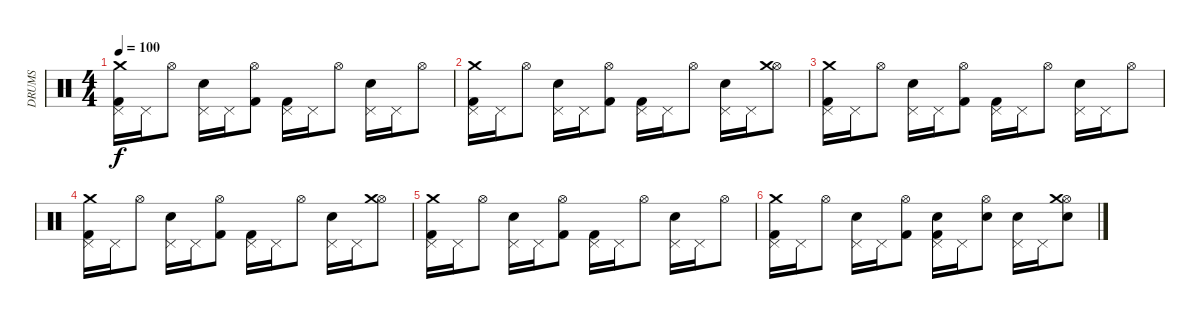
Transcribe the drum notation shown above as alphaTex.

\track ("DRUMS" "DRUMS") {instrument percussion}
\staff {score}
\articulation defaults
\ts (4 4)
\tempo 100
\clef neutral
\ks c
("Kick (hit) 2" "Pedal Hi-Hat (hit)" "Crash medium (hit)").16{dy f} "Pedal Hi-Hat (hit)".16 "Hi-Hat (open)".8 ("Electric Snare (hit)" "Pedal Hi-Hat (hit)").16 "Pedal Hi-Hat (hit)".16 ("Kick (hit) 2" "Hi-Hat (open)").8 ("Kick (hit) 2" "Pedal Hi-Hat (hit)").16 "Pedal Hi-Hat (hit)".16 "Hi-Hat (open)".8 ("Electric Snare (hit)" "Pedal Hi-Hat (hit)").16 "Pedal Hi-Hat (hit)".16 "Hi-Hat (open)".8 |
("Kick (hit) 2" "Pedal Hi-Hat (hit)" "Crash medium (hit)").16 "Pedal Hi-Hat (hit)".16 "Hi-Hat (open)".8 ("Electric Snare (hit)" "Pedal Hi-Hat (hit)").16 "Pedal Hi-Hat (hit)".16 ("Kick (hit) 2" "Hi-Hat (open)").8 ("Kick (hit) 2" "Pedal Hi-Hat (hit)").16 "Pedal Hi-Hat (hit)".16 "Hi-Hat (open)".8 ("Electric Snare (hit)" "Pedal Hi-Hat (hit)").16 "Pedal Hi-Hat (hit)".16 ("Hi-Hat (open)" "Crash medium (hit)").8 |
("Kick (hit) 2" "Pedal Hi-Hat (hit)" "Crash medium (hit)").16 "Pedal Hi-Hat (hit)".16 "Hi-Hat (open)".8 ("Electric Snare (hit)" "Pedal Hi-Hat (hit)").16 "Pedal Hi-Hat (hit)".16 ("Kick (hit) 2" "Hi-Hat (open)").8 ("Kick (hit) 2" "Pedal Hi-Hat (hit)").16 "Pedal Hi-Hat (hit)".16 "Hi-Hat (open)".8 ("Electric Snare (hit)" "Pedal Hi-Hat (hit)").16 "Pedal Hi-Hat (hit)".16 "Hi-Hat (open)".8 |
("Kick (hit) 2" "Pedal Hi-Hat (hit)" "Crash medium (hit)").16 "Pedal Hi-Hat (hit)".16 "Hi-Hat (open)".8 ("Electric Snare (hit)" "Pedal Hi-Hat (hit)").16 "Pedal Hi-Hat (hit)".16 ("Kick (hit) 2" "Hi-Hat (open)").8 ("Kick (hit) 2" "Pedal Hi-Hat (hit)").16 "Pedal Hi-Hat (hit)".16 "Hi-Hat (open)".8 ("Electric Snare (hit)" "Pedal Hi-Hat (hit)").16 "Pedal Hi-Hat (hit)".16 ("Hi-Hat (open)" "Crash medium (hit)").8 |
("Kick (hit) 2" "Pedal Hi-Hat (hit)" "Crash medium (hit)").16 "Pedal Hi-Hat (hit)".16 "Hi-Hat (open)".8 ("Electric Snare (hit)" "Pedal Hi-Hat (hit)").16 "Pedal Hi-Hat (hit)".16 ("Kick (hit) 2" "Hi-Hat (open)").8 ("Kick (hit) 2" "Pedal Hi-Hat (hit)").16 "Pedal Hi-Hat (hit)".16 "Hi-Hat (open)".8 ("Electric Snare (hit)" "Pedal Hi-Hat (hit)").16 "Pedal Hi-Hat (hit)".16 "Hi-Hat (open)".8 |
("Kick (hit) 2" "Pedal Hi-Hat (hit)" "Crash medium (hit)").16 "Pedal Hi-Hat (hit)".16 "Hi-Hat (open)".8 ("Electric Snare (hit)" "Pedal Hi-Hat (hit)").16 "Pedal Hi-Hat (hit)".16 ("Kick (hit) 2" "Hi-Hat (open)").8 ("Kick (hit) 2" "Electric Snare (hit)" "Pedal Hi-Hat (hit)").16 "Pedal Hi-Hat (hit)".16 ("Electric Snare (hit)" "Hi-Hat (open)").8 ("Electric Snare (hit)" "Pedal Hi-Hat (hit)").16 "Pedal Hi-Hat (hit)".16 ("Electric Snare (hit)" "Hi-Hat (open)" "Crash medium (hit)").8
